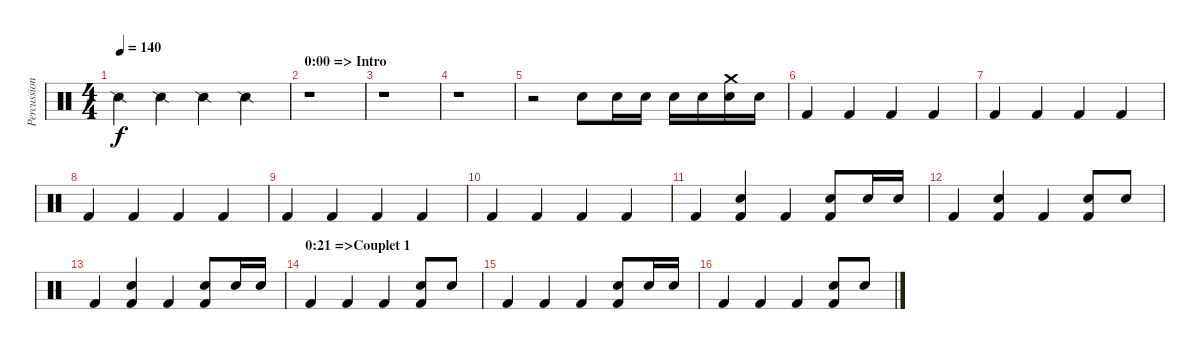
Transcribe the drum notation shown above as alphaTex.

\track ("Percussions" "Percussion") {instrument percussion}
\staff {score}
\articulation defaults
\ts (4 4)
\tempo 140
\clef neutral
\ks c "Snare (side stick) 2".4{dy f} "Snare (side stick) 2".4 "Snare (side stick) 2".4 "Snare (side stick) 2".4
|
\section ("" "0:00 => Intro")
r.1 |
r.1 |
r.1 |
r.2 "Snare (hit) 2".8 "Snare (hit) 2".16 "Snare (hit) 2".16 "Snare (hit) 2".16 "Snare (hit) 2".16 ("Crash medium (hit)" "Snare (hit) 2").16 "Snare (hit) 2".16 |
"Kick (hit) 2".4 "Kick (hit) 2".4 "Kick (hit) 2".4 "Kick (hit) 2".4 |
"Kick (hit) 2".4 "Kick (hit) 2".4 "Kick (hit) 2".4 "Kick (hit) 2".4 |
"Kick (hit) 2".4 "Kick (hit) 2".4 "Kick (hit) 2".4 "Kick (hit) 2".4 |
"Kick (hit) 2".4 "Kick (hit) 2".4 "Kick (hit) 2".4 "Kick (hit) 2".4 |
"Kick (hit) 2".4 "Kick (hit) 2".4 "Kick (hit) 2".4 "Kick (hit) 2".4 |
"Kick (hit) 2".4 ("Electric Snare (hit)" "Kick (hit) 2").4 "Kick (hit) 2".4 ("Electric Snare (hit)" "Kick (hit) 2").8 "Electric Snare (hit)".16 "Electric Snare (hit)".16 |
"Kick (hit) 2".4 ("Electric Snare (hit)" "Kick (hit) 2").4 "Kick (hit) 2".4 ("Electric Snare (hit)" "Kick (hit) 2").8 "Electric Snare (hit)".8 |
"Kick (hit) 2".4 ("Electric Snare (hit)" "Kick (hit) 2").4 "Kick (hit) 2".4 ("Electric Snare (hit)" "Kick (hit) 2").8 "Electric Snare (hit)".16 "Electric Snare (hit)".16 |
\section ("" "0:21 =>Couplet 1")
"Kick (hit) 2".4 "Kick (hit) 2".4 "Kick (hit) 2".4 ("Electric Snare (hit)" "Kick (hit) 2").8 "Electric Snare (hit)".8 |
"Kick (hit) 2".4 "Kick (hit) 2".4 "Kick (hit) 2".4 ("Electric Snare (hit)" "Kick (hit) 2").8 "Electric Snare (hit)".16 "Electric Snare (hit)".16 |
"Kick (hit) 2".4 "Kick (hit) 2".4 "Kick (hit) 2".4 ("Electric Snare (hit)" "Kick (hit) 2").8 "Electric Snare (hit)".8
